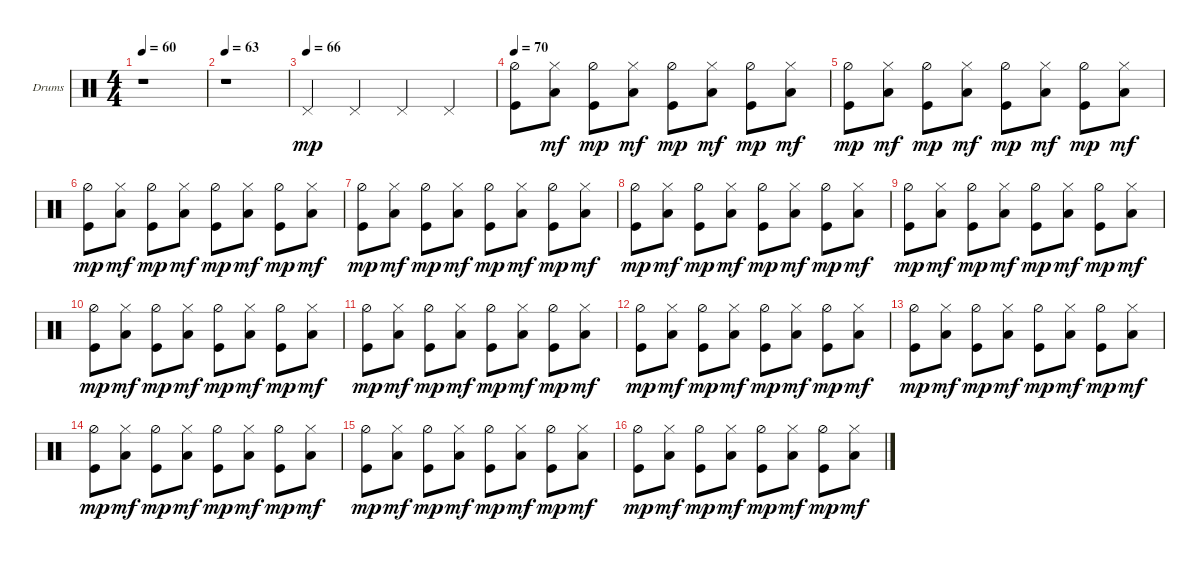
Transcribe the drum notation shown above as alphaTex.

\defaultSystemsLayout 4
\bracketExtendMode groupsimilarinstruments
\firstSystemTrackNameOrientation horizontal
\otherSystemsTrackNameOrientation horizontal
\track ("Jeremiah Green" "Drums") {instrument percussion}
\staff {score}
\articulation defaults
\ts (4 4)
\tempo 60
\clef neutral
\scale
0.474654
\ks c
r.1{dy mp} |
\tempo 63
\scale
0.262673 r.1 |
\tempo 66
\scale
0.262673 "Pedal Hi-Hat (hit)".4 "Pedal Hi-Hat (hit)".4 "Pedal Hi-Hat (hit)".4 "Pedal Hi-Hat (hit)".4 |
\tempo 70
\scale
0.333333 ("Kick (hit)" "Hi-Hat (half)").8 ("Low Tom (hit)" "Hi-Hat (closed)").8{dy mf} ("Kick (hit)" "Hi-Hat (half)").8{dy mp} ("Low Tom (hit)" "Hi-Hat (closed)").8{dy mf} ("Kick (hit)" "Hi-Hat (half)").8{dy mp} ("Low Tom (hit)" "Hi-Hat (closed)").8{dy mf} ("Kick (hit)" "Hi-Hat (half)").8{dy mp} ("Low Tom (hit)" "Hi-Hat (closed)").8{dy mf} |
\scale
0.333333 ("Kick (hit)" "Hi-Hat (half)").8{dy mp} ("Low Tom (hit)" "Hi-Hat (closed)").8{dy mf} ("Kick (hit)" "Hi-Hat (half)").8{dy mp} ("Low Tom (hit)" "Hi-Hat (closed)").8{dy mf} ("Kick (hit)" "Hi-Hat (half)").8{dy mp} ("Low Tom (hit)" "Hi-Hat (closed)").8{dy mf} ("Kick (hit)" "Hi-Hat (half)").8{dy mp} ("Low Tom (hit)" "Hi-Hat (closed)").8{dy mf} |
\scale
0.333333 ("Kick (hit)" "Hi-Hat (half)").8{dy mp} ("Low Tom (hit)" "Hi-Hat (closed)").8{dy mf} ("Kick (hit)" "Hi-Hat (half)").8{dy mp} ("Low Tom (hit)" "Hi-Hat (closed)").8{dy mf} ("Kick (hit)" "Hi-Hat (half)").8{dy mp} ("Low Tom (hit)" "Hi-Hat (closed)").8{dy mf} ("Kick (hit)" "Hi-Hat (half)").8{dy mp} ("Low Tom (hit)" "Hi-Hat (closed)").8{dy mf} |
\scale
0.333333 ("Kick (hit)" "Hi-Hat (half)").8{dy mp} ("Low Tom (hit)" "Hi-Hat (closed)").8{dy mf} ("Kick (hit)" "Hi-Hat (half)").8{dy mp} ("Low Tom (hit)" "Hi-Hat (closed)").8{dy mf} ("Kick (hit)" "Hi-Hat (half)").8{dy mp} ("Low Tom (hit)" "Hi-Hat (closed)").8{dy mf} ("Kick (hit)" "Hi-Hat (half)").8{dy mp} ("Low Tom (hit)" "Hi-Hat (closed)").8{dy mf} |
\scale
0.333333 ("Kick (hit)" "Hi-Hat (half)").8{dy mp} ("Low Tom (hit)" "Hi-Hat (closed)").8{dy mf} ("Kick (hit)" "Hi-Hat (half)").8{dy mp} ("Low Tom (hit)" "Hi-Hat (closed)").8{dy mf} ("Kick (hit)" "Hi-Hat (half)").8{dy mp} ("Low Tom (hit)" "Hi-Hat (closed)").8{dy mf} ("Kick (hit)" "Hi-Hat (half)").8{dy mp} ("Low Tom (hit)" "Hi-Hat (closed)").8{dy mf} |
\scale
0.333333 ("Kick (hit)" "Hi-Hat (half)").8{dy mp} ("Low Tom (hit)" "Hi-Hat (closed)").8{dy mf} ("Kick (hit)" "Hi-Hat (half)").8{dy mp} ("Low Tom (hit)" "Hi-Hat (closed)").8{dy mf} ("Kick (hit)" "Hi-Hat (half)").8{dy mp} ("Low Tom (hit)" "Hi-Hat (closed)").8{dy mf} ("Kick (hit)" "Hi-Hat (half)").8{dy mp} ("Low Tom (hit)" "Hi-Hat (closed)").8{dy mf} |
\scale
0.333333 ("Kick (hit)" "Hi-Hat (half)").8{dy mp} ("Low Tom (hit)" "Hi-Hat (closed)").8{dy mf} ("Kick (hit)" "Hi-Hat (half)").8{dy mp} ("Low Tom (hit)" "Hi-Hat (closed)").8{dy mf} ("Kick (hit)" "Hi-Hat (half)").8{dy mp} ("Low Tom (hit)" "Hi-Hat (closed)").8{dy mf} ("Kick (hit)" "Hi-Hat (half)").8{dy mp} ("Low Tom (hit)" "Hi-Hat (closed)").8{dy mf} |
\scale
0.333333 ("Kick (hit)" "Hi-Hat (half)").8{dy mp} ("Low Tom (hit)" "Hi-Hat (closed)").8{dy mf} ("Kick (hit)" "Hi-Hat (half)").8{dy mp} ("Low Tom (hit)" "Hi-Hat (closed)").8{dy mf} ("Kick (hit)" "Hi-Hat (half)").8{dy mp} ("Low Tom (hit)" "Hi-Hat (closed)").8{dy mf} ("Kick (hit)" "Hi-Hat (half)").8{dy mp} ("Low Tom (hit)" "Hi-Hat (closed)").8{dy mf} |
\scale
0.333333 ("Kick (hit)" "Hi-Hat (half)").8{dy mp} ("Low Tom (hit)" "Hi-Hat (closed)").8{dy mf} ("Kick (hit)" "Hi-Hat (half)").8{dy mp} ("Low Tom (hit)" "Hi-Hat (closed)").8{dy mf} ("Kick (hit)" "Hi-Hat (half)").8{dy mp} ("Low Tom (hit)" "Hi-Hat (closed)").8{dy mf} ("Kick (hit)" "Hi-Hat (half)").8{dy mp} ("Low Tom (hit)" "Hi-Hat (closed)").8{dy mf} |
\scale
0.333333 ("Kick (hit)" "Hi-Hat (half)").8{dy mp} ("Low Tom (hit)" "Hi-Hat (closed)").8{dy mf} ("Kick (hit)" "Hi-Hat (half)").8{dy mp} ("Low Tom (hit)" "Hi-Hat (closed)").8{dy mf} ("Kick (hit)" "Hi-Hat (half)").8{dy mp} ("Low Tom (hit)" "Hi-Hat (closed)").8{dy mf} ("Kick (hit)" "Hi-Hat (half)").8{dy mp} ("Low Tom (hit)" "Hi-Hat (closed)").8{dy mf} |
\scale
0.333333 ("Kick (hit)" "Hi-Hat (half)").8{dy mp} ("Low Tom (hit)" "Hi-Hat (closed)").8{dy mf} ("Kick (hit)" "Hi-Hat (half)").8{dy mp} ("Low Tom (hit)" "Hi-Hat (closed)").8{dy mf} ("Kick (hit)" "Hi-Hat (half)").8{dy mp} ("Low Tom (hit)" "Hi-Hat (closed)").8{dy mf} ("Kick (hit)" "Hi-Hat (half)").8{dy mp} ("Low Tom (hit)" "Hi-Hat (closed)").8{dy mf} |
\scale
0.333333 ("Kick (hit)" "Hi-Hat (half)").8{dy mp} ("Low Tom (hit)" "Hi-Hat (closed)").8{dy mf} ("Kick (hit)" "Hi-Hat (half)").8{dy mp} ("Low Tom (hit)" "Hi-Hat (closed)").8{dy mf} ("Kick (hit)" "Hi-Hat (half)").8{dy mp} ("Low Tom (hit)" "Hi-Hat (closed)").8{dy mf} ("Kick (hit)" "Hi-Hat (half)").8{dy mp} ("Low Tom (hit)" "Hi-Hat (closed)").8{dy mf} |
\scale
0.333333 ("Kick (hit)" "Hi-Hat (half)").8{dy mp} ("Low Tom (hit)" "Hi-Hat (closed)").8{dy mf} ("Kick (hit)" "Hi-Hat (half)").8{dy mp} ("Low Tom (hit)" "Hi-Hat (closed)").8{dy mf} ("Kick (hit)" "Hi-Hat (half)").8{dy mp} ("Low Tom (hit)" "Hi-Hat (closed)").8{dy mf} ("Kick (hit)" "Hi-Hat (half)").8{dy mp} ("Low Tom (hit)" "Hi-Hat (closed)").8{dy mf}
